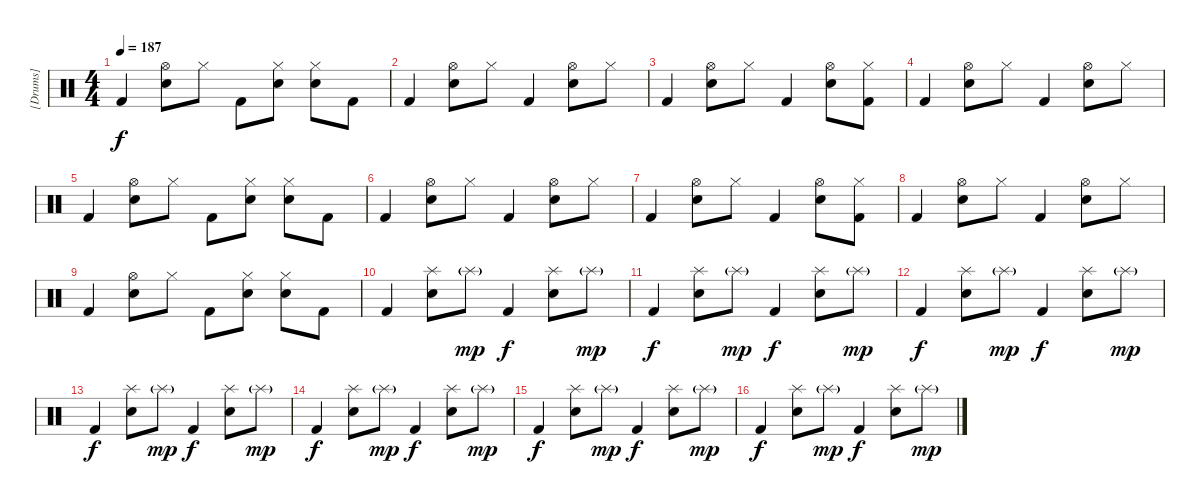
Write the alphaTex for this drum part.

\track ("[Drums]" "[Drums]") {instrument percussion}
\staff {score}
\articulation defaults
\ts (4 4)
\tempo 187
\clef neutral
\ks c "Kick (hit) 2".4{dy f}
("Hi-Hat (open)" "Electric Snare (hit)").8 "Hi-Hat (closed)".8 "Kick (hit) 2".8 ("Hi-Hat (closed)" "Electric Snare (hit)").8 ("Hi-Hat (closed)" "Electric Snare (hit)").8 "Kick (hit) 2".8 |
"Kick (hit) 2".4 ("Hi-Hat (open)" "Electric Snare (hit)").8 "Hi-Hat (closed)".8 "Kick (hit) 2".4 ("Hi-Hat (open)" "Electric Snare (hit)").8 "Hi-Hat (closed)".8 |
"Kick (hit) 2".4 ("Hi-Hat (open)" "Electric Snare (hit)").8 "Hi-Hat (closed)".8 "Kick (hit) 2".4 ("Hi-Hat (open)" "Electric Snare (hit)").8 ("Hi-Hat (closed)" "Kick (hit) 2").8 |
"Kick (hit) 2".4 ("Hi-Hat (open)" "Electric Snare (hit)").8 "Hi-Hat (closed)".8 "Kick (hit) 2".4 ("Hi-Hat (open)" "Electric Snare (hit)").8 "Hi-Hat (closed)".8 |
"Kick (hit) 2".4 ("Hi-Hat (open)" "Electric Snare (hit)").8 "Hi-Hat (closed)".8 "Kick (hit) 2".8 ("Hi-Hat (closed)" "Electric Snare (hit)").8 ("Hi-Hat (closed)" "Electric Snare (hit)").8 "Kick (hit) 2".8 |
"Kick (hit) 2".4 ("Hi-Hat (open)" "Electric Snare (hit)").8 "Hi-Hat (closed)".8 "Kick (hit) 2".4 ("Hi-Hat (open)" "Electric Snare (hit)").8 "Hi-Hat (closed)".8 |
"Kick (hit) 2".4 ("Hi-Hat (open)" "Electric Snare (hit)").8 "Hi-Hat (closed)".8 "Kick (hit) 2".4 ("Hi-Hat (open)" "Electric Snare (hit)").8 ("Hi-Hat (closed)" "Kick (hit) 2").8 |
"Kick (hit) 2".4 ("Hi-Hat (open)" "Electric Snare (hit)").8 "Hi-Hat (closed)".8 "Kick (hit) 2".4 ("Hi-Hat (open)" "Electric Snare (hit)").8 "Hi-Hat (closed)".8 |
"Kick (hit) 2".4 ("Hi-Hat (open)" "Electric Snare (hit)").8 "Hi-Hat (closed)".8 "Kick (hit) 2".8 ("Hi-Hat (closed)" "Electric Snare (hit)").8 ("Hi-Hat (closed)" "Electric Snare (hit)").8 "Kick (hit) 2".8 |
"Kick (hit) 2".4 ("Splash (hit)" "Electric Snare (hit)").8 "Splash (hit)"{g}.8{dy mp} "Kick (hit) 2".4{dy f} ("Splash (hit)" "Electric Snare (hit)").8 "Splash (hit)"{g}.8{dy mp} |
"Kick (hit) 2".4{dy f} ("Splash (hit)" "Electric Snare (hit)").8 "Splash (hit)"{g}.8{dy mp} "Kick (hit) 2".4{dy f} ("Splash (hit)" "Electric Snare (hit)").8 "Splash (hit)"{g}.8{dy mp} |
"Kick (hit) 2".4{dy f} ("Splash (hit)" "Electric Snare (hit)").8 "Splash (hit)"{g}.8{dy mp} "Kick (hit) 2".4{dy f} ("Splash (hit)" "Electric Snare (hit)").8 "Splash (hit)"{g}.8{dy mp} |
"Kick (hit) 2".4{dy f} ("Splash (hit)" "Electric Snare (hit)").8 "Splash (hit)"{g}.8{dy mp} "Kick (hit) 2".4{dy f} ("Splash (hit)" "Electric Snare (hit)").8 "Splash (hit)"{g}.8{dy mp} |
"Kick (hit) 2".4{dy f} ("Splash (hit)" "Electric Snare (hit)").8 "Splash (hit)"{g}.8{dy mp} "Kick (hit) 2".4{dy f} ("Splash (hit)" "Electric Snare (hit)").8 "Splash (hit)"{g}.8{dy mp} |
"Kick (hit) 2".4{dy f} ("Splash (hit)" "Electric Snare (hit)").8 "Splash (hit)"{g}.8{dy mp} "Kick (hit) 2".4{dy f} ("Splash (hit)" "Electric Snare (hit)").8 "Splash (hit)"{g}.8{dy mp} |
"Kick (hit) 2".4{dy f} ("Splash (hit)" "Electric Snare (hit)").8 "Splash (hit)"{g}.8{dy mp} "Kick (hit) 2".4{dy f} ("Splash (hit)" "Electric Snare (hit)").8 "Splash (hit)"{g}.8{dy mp}
